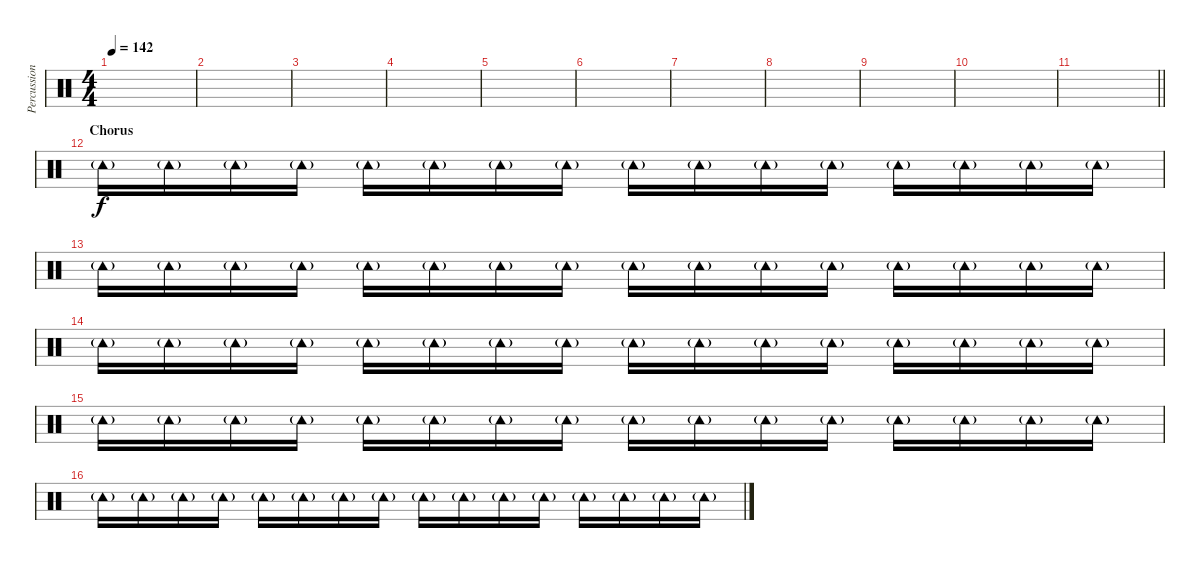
\track ("Percussion" "Percussion") {instrument percussion}
\staff {score}
\articulation defaults
\ts (4 4)
\tempo 142
\clef neutral
\ks c
|
|
|
|
|
|
|
|
|
|
\barLineRight lightlight
|
\section ("" "Chorus")
"Tambourine (hit)"{g}.16 "Tambourine (hit)"{g}.16 "Tambourine (hit)"{g}.16 "Tambourine (hit)"{g}.16 "Tambourine (hit)"{g}.16 "Tambourine (hit)"{g}.16 "Tambourine (hit)"{g}.16 "Tambourine (hit)"{g}.16 "Tambourine (hit)"{g}.16 "Tambourine (hit)"{g}.16 "Tambourine (hit)"{g}.16 "Tambourine (hit)"{g}.16 "Tambourine (hit)"{g}.16 "Tambourine (hit)"{g}.16 "Tambourine (hit)"{g}.16 "Tambourine (hit)"{g}.16 |
"Tambourine (hit)"{g}.16 "Tambourine (hit)"{g}.16 "Tambourine (hit)"{g}.16 "Tambourine (hit)"{g}.16 "Tambourine (hit)"{g}.16 "Tambourine (hit)"{g}.16 "Tambourine (hit)"{g}.16 "Tambourine (hit)"{g}.16 "Tambourine (hit)"{g}.16 "Tambourine (hit)"{g}.16 "Tambourine (hit)"{g}.16 "Tambourine (hit)"{g}.16 "Tambourine (hit)"{g}.16 "Tambourine (hit)"{g}.16 "Tambourine (hit)"{g}.16 "Tambourine (hit)"{g}.16 |
"Tambourine (hit)"{g}.16 "Tambourine (hit)"{g}.16 "Tambourine (hit)"{g}.16 "Tambourine (hit)"{g}.16 "Tambourine (hit)"{g}.16 "Tambourine (hit)"{g}.16 "Tambourine (hit)"{g}.16 "Tambourine (hit)"{g}.16 "Tambourine (hit)"{g}.16 "Tambourine (hit)"{g}.16 "Tambourine (hit)"{g}.16 "Tambourine (hit)"{g}.16 "Tambourine (hit)"{g}.16 "Tambourine (hit)"{g}.16 "Tambourine (hit)"{g}.16 "Tambourine (hit)"{g}.16 |
"Tambourine (hit)"{g}.16 "Tambourine (hit)"{g}.16 "Tambourine (hit)"{g}.16 "Tambourine (hit)"{g}.16 "Tambourine (hit)"{g}.16 "Tambourine (hit)"{g}.16 "Tambourine (hit)"{g}.16 "Tambourine (hit)"{g}.16 "Tambourine (hit)"{g}.16 "Tambourine (hit)"{g}.16 "Tambourine (hit)"{g}.16 "Tambourine (hit)"{g}.16 "Tambourine (hit)"{g}.16 "Tambourine (hit)"{g}.16 "Tambourine (hit)"{g}.16 "Tambourine (hit)"{g}.16 |
"Tambourine (hit)"{g}.16 "Tambourine (hit)"{g}.16 "Tambourine (hit)"{g}.16 "Tambourine (hit)"{g}.16 "Tambourine (hit)"{g}.16 "Tambourine (hit)"{g}.16 "Tambourine (hit)"{g}.16 "Tambourine (hit)"{g}.16 "Tambourine (hit)"{g}.16 "Tambourine (hit)"{g}.16 "Tambourine (hit)"{g}.16 "Tambourine (hit)"{g}.16 "Tambourine (hit)"{g}.16 "Tambourine (hit)"{g}.16 "Tambourine (hit)"{g}.16 "Tambourine (hit)"{g}.16
